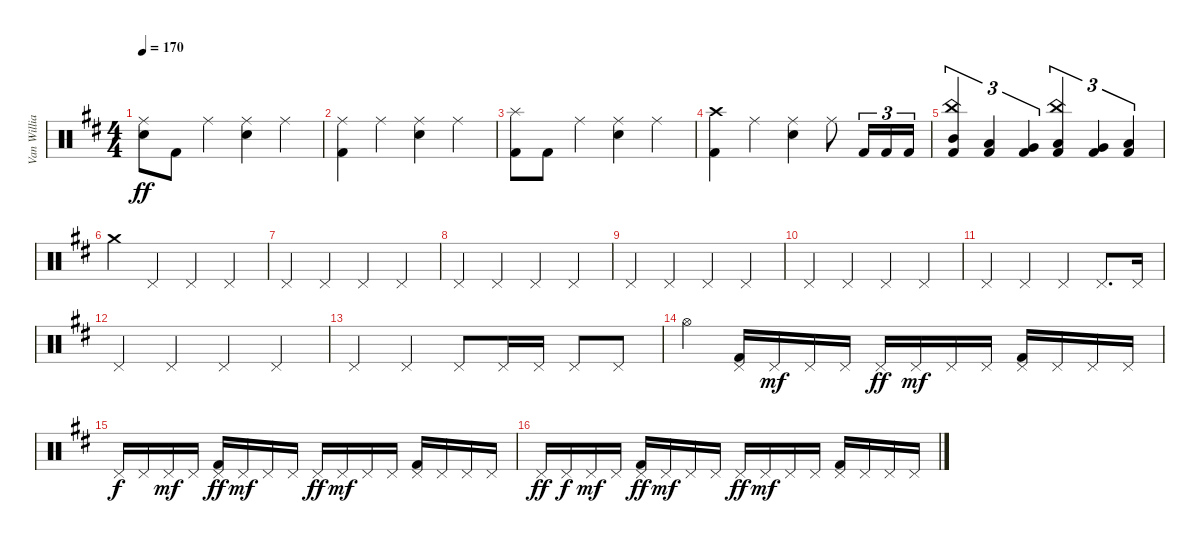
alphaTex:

\track ("Van Williams" "Van Willia") {instrument percussion}
\staff {score}
\articulation defaults
\ts (4 4)
\tempo 170
\clef neutral
\ks d
("Ride (middle)" "Electric Snare (hit)").8{dy ff} "Kick (hit) 2".8 "Ride (middle)".4 ("Ride (middle)" "Electric Snare (hit)").4 "Ride (middle)".4 |
("Ride (middle)" "Kick (hit) 2").4 "Ride (middle)".4 ("Ride (middle)" "Electric Snare (hit)").4 "Ride (middle)".4 |
("Splash (hit)" "Kick (hit) 2").8 "Kick (hit) 2".8 "Ride (middle)".4 ("Ride (middle)" "Electric Snare (hit)").4 "Ride (middle)".4 |
("Crash high (hit)" "Kick (hit) 2").4 "Ride (middle)".4 ("Ride (middle)" "Electric Snare (hit)").4 "Ride (middle)".8 "Kick (hit) 2".16{tu (3 2)} "Kick (hit) 2".16{tu (3 2)} "Kick (hit) 2".16{tu (3 2)} |
("China (hit)" "Mid Tom (hit)" "Kick (hit) 2").4{tu (3 2)} ("Low Tom (hit)" "Kick (hit) 2").4{tu (3 2)} ("Very Low Tom (hit)" "Kick (hit) 2").4{tu (3 2)} ("China (hit)" "Low Tom (hit)" "Kick (hit) 2").4{tu (3 2)} ("Very Low Tom (hit)" "Kick (hit) 2").4{tu (3 2)} ("Low Floor Tom (hit)" "Kick (hit) 2").4{tu (3 2)} |
"Crash medium (hit)".4 "Pedal Hi-Hat (hit)".4 "Pedal Hi-Hat (hit)".4 "Pedal Hi-Hat (hit)".4 |
"Pedal Hi-Hat (hit)".4 "Pedal Hi-Hat (hit)".4 "Pedal Hi-Hat (hit)".4 "Pedal Hi-Hat (hit)".4 |
"Pedal Hi-Hat (hit)".4 "Pedal Hi-Hat (hit)".4 "Pedal Hi-Hat (hit)".4 "Pedal Hi-Hat (hit)".4 |
"Pedal Hi-Hat (hit)".4 "Pedal Hi-Hat (hit)".4 "Pedal Hi-Hat (hit)".4 "Pedal Hi-Hat (hit)".4 |
"Pedal Hi-Hat (hit)".4 "Pedal Hi-Hat (hit)".4 "Pedal Hi-Hat (hit)".4 "Pedal Hi-Hat (hit)".4 |
"Pedal Hi-Hat (hit)".4 "Pedal Hi-Hat (hit)".4 "Pedal Hi-Hat (hit)".4 "Pedal Hi-Hat (hit)".8{d} "Pedal Hi-Hat (hit)".16 |
"Pedal Hi-Hat (hit)".4 "Pedal Hi-Hat (hit)".4 "Pedal Hi-Hat (hit)".4 "Pedal Hi-Hat (hit)".4 |
"Pedal Hi-Hat (hit)".4 "Pedal Hi-Hat (hit)".4 "Pedal Hi-Hat (hit)".8 "Pedal Hi-Hat (hit)".16 "Pedal Hi-Hat (hit)".16 "Pedal Hi-Hat (hit)".8 "Pedal Hi-Hat (hit)".8 |
"Hi-Hat (open)".4 ("Pedal Hi-Hat (hit)" "Kick (hit) 2").16 "Pedal Hi-Hat (hit)".16{dy mf} "Pedal Hi-Hat (hit)".16 "Pedal Hi-Hat (hit)".16 "Pedal Hi-Hat (hit)".16{dy ff} "Pedal Hi-Hat (hit)".16{dy mf} "Pedal Hi-Hat (hit)".16 "Pedal Hi-Hat (hit)".16 ("Pedal Hi-Hat (hit)" "Kick (hit) 2").16 "Pedal Hi-Hat (hit)".16 "Pedal Hi-Hat (hit)".16 "Pedal Hi-Hat (hit)".16 |
"Pedal Hi-Hat (hit)".16{dy f} "Pedal Hi-Hat (hit)".16 "Pedal Hi-Hat (hit)".16{dy mf} "Pedal Hi-Hat (hit)".16 ("Pedal Hi-Hat (hit)" "Kick (hit) 2").16{dy ff} "Pedal Hi-Hat (hit)".16{dy mf} "Pedal Hi-Hat (hit)".16 "Pedal Hi-Hat (hit)".16 "Pedal Hi-Hat (hit)".16{dy ff} "Pedal Hi-Hat (hit)".16{dy mf} "Pedal Hi-Hat (hit)".16 "Pedal Hi-Hat (hit)".16 ("Pedal Hi-Hat (hit)" "Kick (hit) 2").16 "Pedal Hi-Hat (hit)".16 "Pedal Hi-Hat (hit)".16 "Pedal Hi-Hat (hit)".16 |
"Pedal Hi-Hat (hit)".16{dy ff} "Pedal Hi-Hat (hit)".16{dy f} "Pedal Hi-Hat (hit)".16{dy mf} "Pedal Hi-Hat (hit)".16 ("Pedal Hi-Hat (hit)" "Kick (hit) 2").16{dy ff} "Pedal Hi-Hat (hit)".16{dy mf} "Pedal Hi-Hat (hit)".16 "Pedal Hi-Hat (hit)".16 "Pedal Hi-Hat (hit)".16{dy ff} "Pedal Hi-Hat (hit)".16{dy mf} "Pedal Hi-Hat (hit)".16 "Pedal Hi-Hat (hit)".16 ("Pedal Hi-Hat (hit)" "Kick (hit) 2").16 "Pedal Hi-Hat (hit)".16 "Pedal Hi-Hat (hit)".16 "Pedal Hi-Hat (hit)".16
